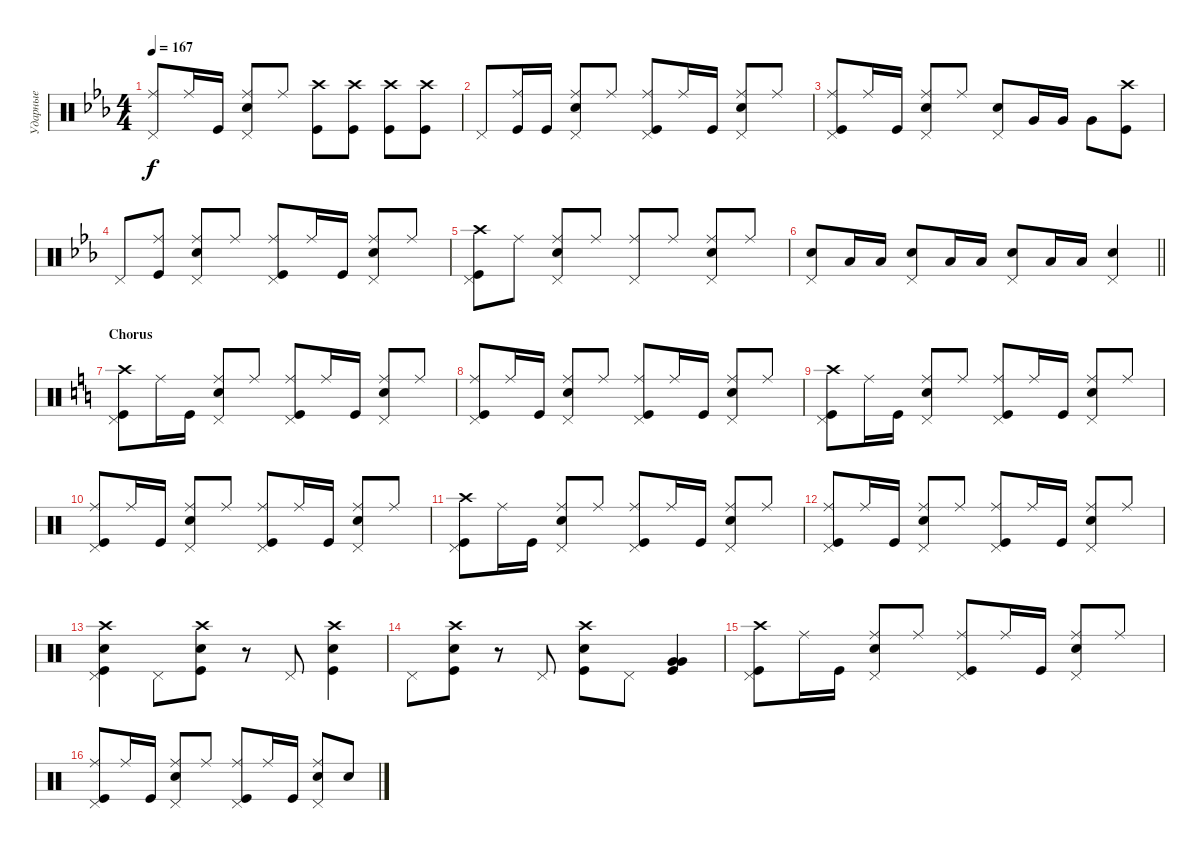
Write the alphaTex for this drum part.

\track ("Ударные" "Ударные") {instrument percussion}
\staff {score}
\articulation defaults
\ts (4 4)
\tempo 167
\clef neutral
\ks cminor
("Pedal Hi-Hat (hit)" "Ride (middle)").8{dy f} "Ride (middle)".16 "Kick (hit)".16 ("Ride (middle)" "Snare (hit) 2" "Pedal Hi-Hat (hit)").8 "Ride (middle)".8 ("Kick (hit)" "Crash high (hit)").8 ("Crash high (hit)" "Kick (hit)").8 ("Crash high (hit)" "Kick (hit)").8 ("Crash high (hit)" "Kick (hit)").8 |
"Pedal Hi-Hat (hit)".8 ("Ride (middle)" "Kick (hit)").16 "Kick (hit)".16 ("Ride (middle)" "Snare (hit) 2" "Pedal Hi-Hat (hit)").8 "Ride (middle)".8 ("Ride (middle)" "Kick (hit)" "Pedal Hi-Hat (hit)").8 "Ride (middle)".16 "Kick (hit)".16 ("Ride (middle)" "Snare (hit) 2" "Pedal Hi-Hat (hit)").8 "Ride (middle)".8 |
("Ride (middle)" "Kick (hit)" "Pedal Hi-Hat (hit)").8 "Ride (middle)".16 "Kick (hit)".16 ("Ride (middle)" "Snare (hit) 2" "Pedal Hi-Hat (hit)").8 "Ride (middle)".8 ("Pedal Hi-Hat (hit)" "Snare (hit) 2").8 "Very Low Tom (hit)".16 "Very Low Tom (hit)".16 "Very Low Tom (hit)".8 ("Crash high (hit)" "Kick (hit)").8 |
"Pedal Hi-Hat (hit)".8 ("Ride (middle)" "Kick (hit)").8 ("Ride (middle)" "Snare (hit) 2" "Pedal Hi-Hat (hit)").8 "Ride (middle)".8 ("Ride (middle)" "Kick (hit)" "Pedal Hi-Hat (hit)").8 "Ride (middle)".16 "Kick (hit)".16 ("Ride (middle)" "Snare (hit) 2" "Pedal Hi-Hat (hit)").8 "Ride (middle)".8 |
("Pedal Hi-Hat (hit)" "Crash high (hit)" "Kick (hit)").8 "Ride (middle)".8 ("Ride (middle)" "Snare (hit) 2" "Pedal Hi-Hat (hit)").8 "Ride (middle)".8 ("Pedal Hi-Hat (hit)" "Ride (middle)").8 "Ride (middle)".8 ("Ride (middle)" "Snare (hit) 2" "Pedal Hi-Hat (hit)").8 "Ride (middle)".8 |
\barLineRight lightlight
("Pedal Hi-Hat (hit)" "Snare (hit) 2").8{bd 60} "Low Floor Tom (hit)".16 "Low Floor Tom (hit)".16 ("Snare (hit) 2" "Pedal Hi-Hat (hit)").8{bd 60} "Low Floor Tom (hit)".16 "Low Floor Tom (hit)".16 ("Snare (hit) 2" "Pedal Hi-Hat (hit)").8{bd 60} "Low Floor Tom (hit)".16 "Low Floor Tom (hit)".16 ("Snare (hit) 2" "Pedal Hi-Hat (hit)").4{bd 60} |
\section ("" "Chorus")
\ks aminor
("Kick (hit)" "Pedal Hi-Hat (hit)" "Crash high (hit)").8 "Ride (middle)".16 "Kick (hit)".16 ("Ride (middle)" "Snare (hit) 2" "Pedal Hi-Hat (hit)").8 "Ride (middle)".8 ("Ride (middle)" "Kick (hit)" "Pedal Hi-Hat (hit)").8 "Ride (middle)".16 "Kick (hit)".16 ("Ride (middle)" "Snare (hit) 2" "Pedal Hi-Hat (hit)").8 "Ride (middle)".8 |
("Kick (hit)" "Ride (middle)" "Pedal Hi-Hat (hit)").8 "Ride (middle)".16 "Kick (hit)".16 ("Snare (hit) 2" "Ride (middle)" "Pedal Hi-Hat (hit)").8 "Ride (middle)".8 ("Ride (middle)" "Kick (hit)" "Pedal Hi-Hat (hit)").8 "Ride (middle)".16 "Kick (hit)".16 ("Snare (hit) 2" "Ride (middle)" "Pedal Hi-Hat (hit)").8 "Ride (middle)".8 |
("Kick (hit)" "Pedal Hi-Hat (hit)" "Crash high (hit)").8 "Ride (middle)".16 "Kick (hit)".16 ("Ride (middle)" "Snare (hit) 2" "Pedal Hi-Hat (hit)").8 "Ride (middle)".8 ("Ride (middle)" "Kick (hit)" "Pedal Hi-Hat (hit)").8 "Ride (middle)".16 "Kick (hit)".16 ("Ride (middle)" "Snare (hit) 2" "Pedal Hi-Hat (hit)").8 "Ride (middle)".8 |
("Kick (hit)" "Ride (middle)" "Pedal Hi-Hat (hit)").8 "Ride (middle)".16 "Kick (hit)".16 ("Snare (hit) 2" "Ride (middle)" "Pedal Hi-Hat (hit)").8 "Ride (middle)".8 ("Ride (middle)" "Kick (hit)" "Pedal Hi-Hat (hit)").8 "Ride (middle)".16 "Kick (hit)".16 ("Snare (hit) 2" "Ride (middle)" "Pedal Hi-Hat (hit)").8 "Ride (middle)".8 |
("Kick (hit)" "Pedal Hi-Hat (hit)" "Crash high (hit)").8 "Ride (middle)".16 "Kick (hit)".16 ("Ride (middle)" "Snare (hit) 2" "Pedal Hi-Hat (hit)").8 "Ride (middle)".8 ("Ride (middle)" "Kick (hit)" "Pedal Hi-Hat (hit)").8 "Ride (middle)".16 "Kick (hit)".16 ("Ride (middle)" "Snare (hit) 2" "Pedal Hi-Hat (hit)").8 "Ride (middle)".8 |
("Kick (hit)" "Ride (middle)" "Pedal Hi-Hat (hit)").8 "Ride (middle)".16 "Kick (hit)".16 ("Snare (hit) 2" "Ride (middle)" "Pedal Hi-Hat (hit)").8 "Ride (middle)".8 ("Ride (middle)" "Kick (hit)" "Pedal Hi-Hat (hit)").8 "Ride (middle)".16 "Kick (hit)".16 ("Snare (hit) 2" "Ride (middle)" "Pedal Hi-Hat (hit)").8 "Ride (middle)".8 |
("Snare (hit) 2" "Crash high (hit)" "Kick (hit)" "Pedal Hi-Hat (hit)").4 "Pedal Hi-Hat (hit)".8 ("Crash high (hit)" "Kick (hit)" "Snare (hit) 2").8 r.8 "Pedal Hi-Hat (hit)".8 ("Crash high (hit)" "Snare (hit) 2" "Kick (hit)").4 |
"Pedal Hi-Hat (hit)".8 ("Crash high (hit)" "Kick (hit)" "Snare (hit) 2").8 r.8 "Pedal Hi-Hat (hit)".8 ("Kick (hit)" "Snare (hit) 2" "Crash high (hit)").8 "Pedal Hi-Hat (hit)".8 ("Kick (hit)" "Very Low Tom (hit)" "Very Low Tom (hit)").4{bd 60} |
("Kick (hit)" "Pedal Hi-Hat (hit)" "Crash high (hit)").8 "Ride (middle)".16 "Kick (hit)".16 ("Ride (middle)" "Snare (hit) 2" "Pedal Hi-Hat (hit)").8 "Ride (middle)".8 ("Ride (middle)" "Kick (hit)" "Pedal Hi-Hat (hit)").8 "Ride (middle)".16 "Kick (hit)".16 ("Ride (middle)" "Snare (hit) 2" "Pedal Hi-Hat (hit)").8 "Ride (middle)".8 |
("Kick (hit)" "Ride (middle)" "Pedal Hi-Hat (hit)").8 "Ride (middle)".16 "Kick (hit)".16 ("Snare (hit) 2" "Ride (middle)" "Pedal Hi-Hat (hit)").8 "Ride (middle)".8 ("Ride (middle)" "Kick (hit)" "Pedal Hi-Hat (hit)").8 "Ride (middle)".16 "Kick (hit)".16 ("Ride (middle)" "Snare (hit) 2" "Pedal Hi-Hat (hit)").8 "Snare (hit) 2".8
